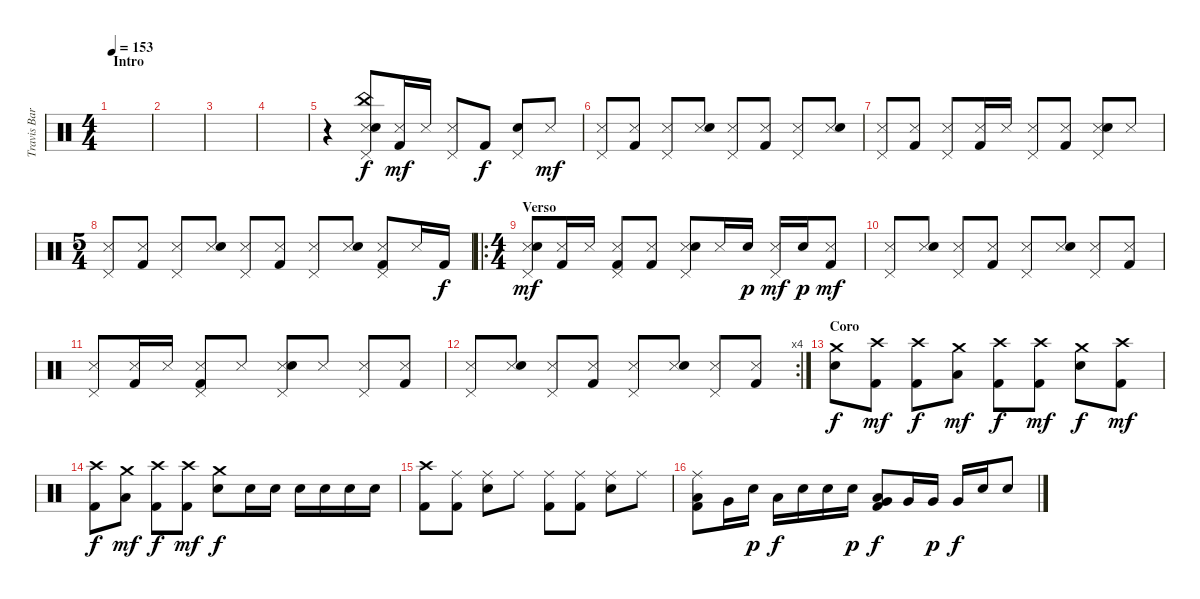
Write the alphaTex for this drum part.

\track ("Travis Barker" "Travis Bar") {instrument percussion}
\staff {score}
\articulation defaults
\ts (4 4)
\section ("" "Intro")
\tempo 153
\clef neutral
\ks c
|
|
|
|
r.4 ("Snare (side stick) 3" "Electric Snare (hit)" "China (hit)" "Pedal Hi-Hat (hit)").8 ("Snare (side stick) 3" "Kick (hit) 2").16{dy mf} "Snare (side stick) 3".16 ("Snare (side stick) 3" "Pedal Hi-Hat (hit)").8 "Kick (hit) 2".8{dy f} ("Electric Snare (hit)" "Pedal Hi-Hat (hit)").8 "Snare (side stick) 3".8{dy mf} |
("Snare (side stick) 3" "Pedal Hi-Hat (hit)").8 ("Snare (side stick) 3" "Kick (hit) 2").8 ("Snare (side stick) 3" "Pedal Hi-Hat (hit)").8 ("Snare (side stick) 3" "Electric Snare (hit)").8 ("Snare (side stick) 3" "Pedal Hi-Hat (hit)").8 ("Snare (side stick) 3" "Kick (hit) 2").8 ("Snare (side stick) 3" "Pedal Hi-Hat (hit)").8 ("Snare (side stick) 3" "Electric Snare (hit)").8 |
("Snare (side stick) 3" "Pedal Hi-Hat (hit)").8 ("Snare (side stick) 3" "Kick (hit) 2").8 ("Snare (side stick) 3" "Pedal Hi-Hat (hit)").8 ("Snare (side stick) 3" "Kick (hit) 2").16 "Snare (side stick) 3".16 ("Snare (side stick) 3" "Pedal Hi-Hat (hit)").8 ("Snare (side stick) 3" "Kick (hit) 2").8 ("Snare (side stick) 3" "Electric Snare (hit)" "Pedal Hi-Hat (hit)").8 "Snare (side stick) 3".8 |
\ts (5 4)
("Snare (side stick) 3" "Pedal Hi-Hat (hit)").8 ("Snare (side stick) 3" "Kick (hit) 2").8 ("Snare (side stick) 3" "Pedal Hi-Hat (hit)").8 ("Snare (side stick) 3" "Electric Snare (hit)").8 ("Snare (side stick) 3" "Pedal Hi-Hat (hit)").8 ("Snare (side stick) 3" "Kick (hit) 2").8 ("Snare (side stick) 3" "Pedal Hi-Hat (hit)").8 ("Snare (side stick) 3" "Electric Snare (hit)").8 ("Snare (side stick) 3" "Kick (hit) 2" "Pedal Hi-Hat (hit)").8 "Snare (side stick) 3".16 "Kick (hit) 2".16{dy f} |
\ro
\ts (4 4)
\section ("" "Verso")
("Snare (side stick) 3" "Electric Snare (hit)" "Pedal Hi-Hat (hit)").8{dy mf} ("Snare (side stick) 3" "Kick (hit) 2").16 "Snare (side stick) 3".16 ("Snare (side stick) 3" "Kick (hit) 2" "Pedal Hi-Hat (hit)").8 ("Snare (side stick) 3" "Kick (hit) 2").8 ("Snare (side stick) 3" "Electric Snare (hit)" "Pedal Hi-Hat (hit)").8 "Snare (side stick) 3".16 "Electric Snare (hit)".16{dy p} ("Snare (side stick) 3" "Pedal Hi-Hat (hit)").16{dy mf} "Electric Snare (hit)".16{dy p} ("Snare (side stick) 3" "Kick (hit) 2").8{dy mf} |
("Snare (side stick) 3" "Pedal Hi-Hat (hit)").8 ("Snare (side stick) 3" "Electric Snare (hit)").8 ("Snare (side stick) 3" "Pedal Hi-Hat (hit)").8 ("Snare (side stick) 3" "Kick (hit) 2").8 ("Snare (side stick) 3" "Pedal Hi-Hat (hit)").8 ("Snare (side stick) 3" "Electric Snare (hit)").8 ("Snare (side stick) 3" "Pedal Hi-Hat (hit)").8 ("Snare (side stick) 3" "Kick (hit) 2").8 |
("Snare (side stick) 3" "Pedal Hi-Hat (hit)").8 ("Snare (side stick) 3" "Kick (hit) 2").16 "Snare (side stick) 3".16 ("Snare (side stick) 3" "Kick (hit) 2" "Pedal Hi-Hat (hit)").8 "Snare (side stick) 3".8 ("Snare (side stick) 3" "Electric Snare (hit)" "Pedal Hi-Hat (hit)").8 "Snare (side stick) 3".8 ("Snare (side stick) 3" "Pedal Hi-Hat (hit)").8 ("Snare (side stick) 3" "Kick (hit) 2").8 |
\rc 4
("Snare (side stick) 3" "Pedal Hi-Hat (hit)").8 ("Snare (side stick) 3" "Electric Snare (hit)").8 ("Snare (side stick) 3" "Pedal Hi-Hat (hit)").8 ("Snare (side stick) 3" "Kick (hit) 2").8 ("Snare (side stick) 3" "Pedal Hi-Hat (hit)").8 ("Snare (side stick) 3" "Electric Snare (hit)").8 ("Snare (side stick) 3" "Pedal Hi-Hat (hit)").8 ("Snare (side stick) 3" "Kick (hit) 2").8 |
\section ("" "Coro")
("Crash medium (hit)" "Electric Snare (hit)").8{dy f} ("Crash high (hit)" "Kick (hit) 2").8{dy mf} ("Crash high (hit)" "Kick (hit) 2").8{dy f} ("Crash medium (hit)" "Low Tom (hit)").8{dy mf} ("Crash high (hit)" "Kick (hit) 2").8{dy f} ("Crash high (hit)" "Kick (hit) 2").8{dy mf} ("Crash medium (hit)" "Electric Snare (hit)").8{dy f} ("Crash high (hit)" "Kick (hit) 2").8{dy mf} |
("Crash high (hit)" "Kick (hit) 2").8{dy f} ("Crash medium (hit)" "Low Tom (hit)").8{dy mf} ("Crash high (hit)" "Kick (hit) 2").8{dy f} ("Crash high (hit)" "Kick (hit) 2").8{dy mf} ("Crash medium (hit)" "Electric Snare (hit)").8{dy f} "Electric Snare (hit)".16 "Electric Snare (hit)".16 "Electric Snare (hit)".16 "Electric Snare (hit)".16 "Electric Snare (hit)".16 "Electric Snare (hit)".16 |
("Crash high (hit)" "Kick (hit) 2").8 ("Ride (middle)" "Kick (hit) 2").8 ("Ride (middle)" "Electric Snare (hit)").8 "Ride (middle)".8 ("Ride (middle)" "Kick (hit) 2").8 ("Ride (middle)" "Kick (hit) 2").8 ("Ride (middle)" "Electric Snare (hit)").8 "Ride (middle)".8 |
("Ride (middle)" "Low Tom (hit)" "Kick (hit) 2").8 "Very Low Tom (hit)".16 "Electric Snare (hit)".16{dy p} "Low Tom (hit)".16{dy f} "Electric Snare (hit)".16 "Electric Snare (hit)".16 "Electric Snare (hit)".16{dy p} ("Low Tom (hit)" "Very Low Tom (hit)" "Kick (hit) 2").8{dy f} "Very Low Tom (hit)".16 "Very Low Tom (hit)".16{dy p} "Very Low Tom (hit)".16{dy f} "Electric Snare (hit)".16 "Electric Snare (hit)".8
